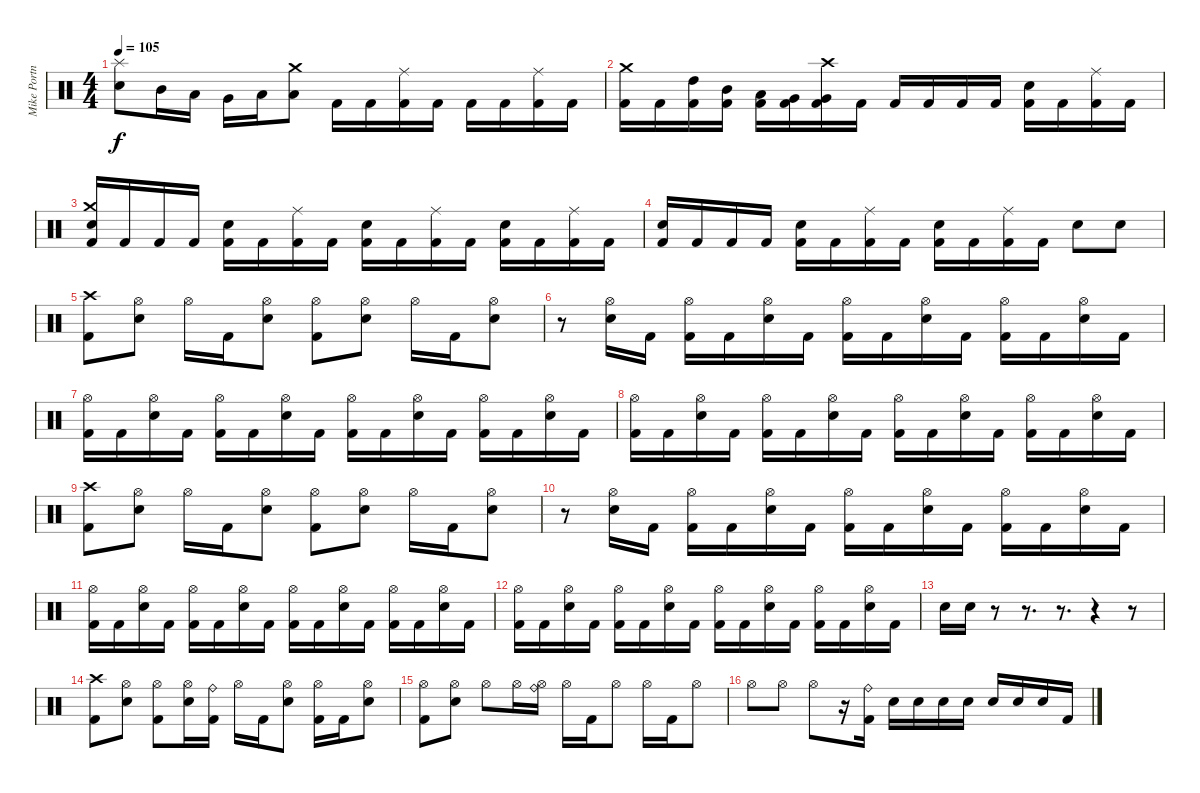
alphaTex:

\track ("Mike Portnoy" "Mike Portn") {instrument percussion}
\staff {score}
\articulation defaults
\ts (4 4)
\tempo 105
\clef neutral
\ks c
("Splash (hit)" "Electric Snare (hit)").8{dy f} "Mid Tom (hit)".16 "Low Tom (hit)".16 "Very Low Tom (hit)".16 "Low Floor Tom (hit)".16 ("Crash medium (hit)" "Low Floor Tom (hit)").8 "Kick (hit) 2".16 "Kick (hit) 2".16 ("Ride (middle)" "Kick (hit) 2").16 "Kick (hit) 2".16 "Kick (hit) 2".16 "Kick (hit) 2".16 ("Ride (middle)" "Kick (hit) 2").16 "Kick (hit) 2".16 |
("Crash medium (hit)" "Kick (hit) 2").16 "Kick (hit) 2".16 ("High Tom (hit)" "Kick (hit) 2").16 ("Mid Tom (hit)" "Kick (hit) 2").16 ("Low Tom (hit)" "Kick (hit) 2").16 ("Very Low Tom (hit)" "Kick (hit) 2").16 ("Crash high (hit)" "Very Low Tom (hit)" "Kick (hit) 2").16 "Kick (hit) 2".16 "Kick (hit) 2".16 "Kick (hit) 2".16 "Kick (hit) 2".16 "Kick (hit) 2".16 ("Electric Snare (hit)" "Kick (hit) 2").16 "Kick (hit) 2".16 ("Ride (middle)" "Kick (hit) 2").16 "Kick (hit) 2".16 |
("Crash medium (hit)" "Electric Snare (hit)" "Kick (hit) 2").16 "Kick (hit) 2".16 "Kick (hit) 2".16 "Kick (hit) 2".16 ("Electric Snare (hit)" "Kick (hit) 2").16 "Kick (hit) 2".16 ("Ride (middle)" "Kick (hit) 2").16 "Kick (hit) 2".16 ("Electric Snare (hit)" "Kick (hit) 2").16 "Kick (hit) 2".16 ("Ride (middle)" "Kick (hit) 2").16 "Kick (hit) 2".16 ("Electric Snare (hit)" "Kick (hit) 2").16 "Kick (hit) 2".16 ("Ride (middle)" "Kick (hit) 2").16 "Kick (hit) 2".16 |
("Electric Snare (hit)" "Kick (hit) 2").16 "Kick (hit) 2".16 "Kick (hit) 2".16 "Kick (hit) 2".16 ("Electric Snare (hit)" "Kick (hit) 2").16 "Kick (hit) 2".16 ("Ride (middle)" "Kick (hit) 2").16 "Kick (hit) 2".16 ("Electric Snare (hit)" "Kick (hit) 2").16 "Kick (hit) 2".16 ("Ride (middle)" "Kick (hit) 2").16 "Kick (hit) 2".16 "Electric Snare (hit)".8 "Electric Snare (hit)".8 |
("Crash high (hit)" "Kick (hit) 2").8 ("Hi-Hat (open)" "Electric Snare (hit)").8 "Hi-Hat (open)".16 "Kick (hit) 2".16 ("Hi-Hat (open)" "Electric Snare (hit)").8 ("Hi-Hat (open)" "Kick (hit) 2").8 ("Hi-Hat (open)" "Electric Snare (hit)").8 "Hi-Hat (open)".16 "Kick (hit) 2".16 ("Hi-Hat (open)" "Electric Snare (hit)").8 |
r.8 ("Hi-Hat (open)" "Electric Snare (hit)").16 "Kick (hit) 2".16 ("Hi-Hat (open)" "Kick (hit) 2").16 "Kick (hit) 2".16 ("Hi-Hat (open)" "Electric Snare (hit)").16 "Kick (hit) 2".16 ("Hi-Hat (open)" "Kick (hit) 2").16 "Kick (hit) 2".16 ("Hi-Hat (open)" "Electric Snare (hit)").16 "Kick (hit) 2".16 ("Hi-Hat (open)" "Kick (hit) 2").16 "Kick (hit) 2".16 ("Hi-Hat (open)" "Electric Snare (hit)").16 "Kick (hit) 2".16 |
("Hi-Hat (open)" "Kick (hit) 2").16 "Kick (hit) 2".16 ("Hi-Hat (open)" "Electric Snare (hit)").16 "Kick (hit) 2".16 ("Hi-Hat (open)" "Kick (hit) 2").16 "Kick (hit) 2".16 ("Hi-Hat (open)" "Electric Snare (hit)").16 "Kick (hit) 2".16 ("Hi-Hat (open)" "Kick (hit) 2").16 "Kick (hit) 2".16 ("Hi-Hat (open)" "Electric Snare (hit)").16 "Kick (hit) 2".16 ("Hi-Hat (open)" "Kick (hit) 2").16 "Kick (hit) 2".16 ("Hi-Hat (open)" "Electric Snare (hit)").16 "Kick (hit) 2".16 |
("Hi-Hat (open)" "Kick (hit) 2").16 "Kick (hit) 2".16 ("Hi-Hat (open)" "Electric Snare (hit)").16 "Kick (hit) 2".16 ("Hi-Hat (open)" "Kick (hit) 2").16 "Kick (hit) 2".16 ("Hi-Hat (open)" "Electric Snare (hit)").16 "Kick (hit) 2".16 ("Hi-Hat (open)" "Kick (hit) 2").16 "Kick (hit) 2".16 ("Hi-Hat (open)" "Electric Snare (hit)").16 "Kick (hit) 2".16 ("Hi-Hat (open)" "Kick (hit) 2").16 "Kick (hit) 2".16 ("Hi-Hat (open)" "Electric Snare (hit)").16 "Kick (hit) 2".16 |
("Crash high (hit)" "Kick (hit) 2").8 ("Hi-Hat (open)" "Electric Snare (hit)").8 "Hi-Hat (open)".16 "Kick (hit) 2".16 ("Hi-Hat (open)" "Electric Snare (hit)").8 ("Hi-Hat (open)" "Kick (hit) 2").8 ("Hi-Hat (open)" "Electric Snare (hit)").8 "Hi-Hat (open)".16 "Kick (hit) 2".16 ("Hi-Hat (open)" "Electric Snare (hit)").8 |
r.8 ("Hi-Hat (open)" "Electric Snare (hit)").16 "Kick (hit) 2".16 ("Hi-Hat (open)" "Kick (hit) 2").16 "Kick (hit) 2".16 ("Hi-Hat (open)" "Electric Snare (hit)").16 "Kick (hit) 2".16 ("Hi-Hat (open)" "Kick (hit) 2").16 "Kick (hit) 2".16 ("Hi-Hat (open)" "Electric Snare (hit)").16 "Kick (hit) 2".16 ("Hi-Hat (open)" "Kick (hit) 2").16 "Kick (hit) 2".16 ("Hi-Hat (open)" "Electric Snare (hit)").16 "Kick (hit) 2".16 |
("Hi-Hat (open)" "Kick (hit) 2").16 "Kick (hit) 2".16 ("Hi-Hat (open)" "Electric Snare (hit)").16 "Kick (hit) 2".16 ("Hi-Hat (open)" "Kick (hit) 2").16 "Kick (hit) 2".16 ("Hi-Hat (open)" "Electric Snare (hit)").16 "Kick (hit) 2".16 ("Hi-Hat (open)" "Kick (hit) 2").16 "Kick (hit) 2".16 ("Hi-Hat (open)" "Electric Snare (hit)").16 "Kick (hit) 2".16 ("Hi-Hat (open)" "Kick (hit) 2").16 "Kick (hit) 2".16 ("Hi-Hat (open)" "Electric Snare (hit)").16 "Kick (hit) 2".16 |
("Hi-Hat (open)" "Kick (hit) 2").16 "Kick (hit) 2".16 ("Hi-Hat (open)" "Electric Snare (hit)").16 "Kick (hit) 2".16 ("Hi-Hat (open)" "Kick (hit) 2").16 "Kick (hit) 2".16 ("Hi-Hat (open)" "Electric Snare (hit)").16 "Kick (hit) 2".16 ("Hi-Hat (open)" "Kick (hit) 2").16 "Kick (hit) 2".16 ("Hi-Hat (open)" "Electric Snare (hit)").16 "Kick (hit) 2".16 ("Hi-Hat (open)" "Kick (hit) 2").16 "Kick (hit) 2".16 ("Hi-Hat (open)" "Electric Snare (hit)").16 "Kick (hit) 2".16 |
"Electric Snare (hit)".16 "Electric Snare (hit)".16 r.8 r.8{d} r.8{d} r.4 r.8 |
("Crash high (hit)" "Kick (hit) 2").8 ("Hi-Hat (open)" "Electric Snare (hit)").8 ("Hi-Hat (open)" "Kick (hit) 2").8 ("Hi-Hat (open)" "Electric Snare (hit)").16 ("Ride (bell)" "Kick (hit) 2").16 "Hi-Hat (open)".16 "Kick (hit) 2".16 ("Hi-Hat (open)" "Electric Snare (hit)").8 ("Hi-Hat (open)" "Kick (hit) 2").16 "Kick (hit) 2".16 ("Hi-Hat (open)" "Electric Snare (hit)").8 |
("Hi-Hat (open)" "Kick (hit) 2").8 ("Hi-Hat (open)" "Electric Snare (hit)").8 "Hi-Hat (open)".8 "Hi-Hat (open)".16 ("Ride (bell)" "Hi-Hat (open)").16 "Hi-Hat (open)".16 "Kick (hit) 2".16 "Hi-Hat (open)".8 "Hi-Hat (open)".16 "Kick (hit) 2".16 "Hi-Hat (open)".8 |
"Hi-Hat (open)".8 "Hi-Hat (open)".8 "Hi-Hat (open)".8 r.16 ("Ride (bell)" "Kick (hit) 2").16 "Electric Snare (hit)".16 "Electric Snare (hit)".16 "Electric Snare (hit)".16 "Electric Snare (hit)".16 "Electric Snare (hit)".16 "Electric Snare (hit)".16 "Electric Snare (hit)".16 "Kick (hit) 2".16
